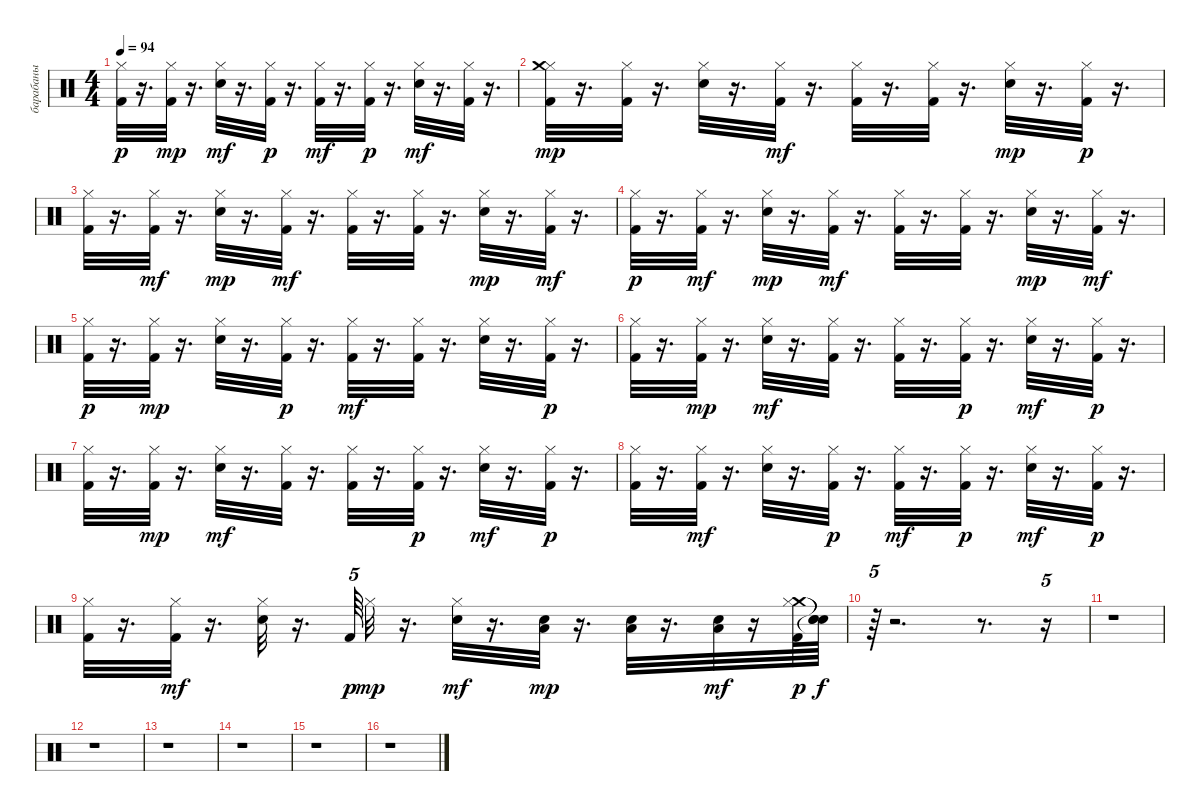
\track ("барабаны" "барабаны") {instrument percussion}
\staff {score}
\articulation defaults
\ts (4 4)
\tempo 94
\clef neutral
\ks c
("Hi-Hat (closed)" "Kick (hit) 2").32{dy p} r.16{d} ("Hi-Hat (closed)" "Kick (hit) 2").32{dy mp} r.16{d} ("Metronome (bell)" "Hi-Hat (closed)").32{dy mf} r.16{d} ("Hi-Hat (closed)" "Kick (hit) 2").32{dy p} r.16{d} ("Kick (hit) 2" "Hi-Hat (closed)").32{dy mf} r.16{d} ("Hi-Hat (closed)" "Kick (hit) 2").32{dy p} r.16{d} ("Hi-Hat (closed)" "Metronome (bell)").32{dy mf} r.16{d} ("Kick (hit) 2" "Hi-Hat (closed)").32 r.16{d} |
("Hi-Hat (closed)" "Kick (hit) 2" "Crash medium (hit)").32{dy mp} r.16{d} ("Hi-Hat (closed)" "Kick (hit) 2").32 r.16{d} ("Hi-Hat (closed)" "Metronome (bell)").32 r.16{d} ("Kick (hit) 2" "Hi-Hat (closed)").32{dy mf} r.16{d} ("Kick (hit) 2" "Hi-Hat (closed)").32 r.16{d} ("Kick (hit) 2" "Hi-Hat (closed)").32 r.16{d} ("Metronome (bell)" "Hi-Hat (closed)").32{dy mp} r.16{d} ("Hi-Hat (closed)" "Kick (hit) 2").32{dy p} r.16{d} |
("Kick (hit) 2" "Hi-Hat (closed)").32 r.16{d} ("Kick (hit) 2" "Hi-Hat (closed)").32{dy mf} r.16{d} ("Metronome (bell)" "Hi-Hat (closed)").32{dy mp} r.16{d} ("Kick (hit) 2" "Hi-Hat (closed)").32{dy mf} r.16{d} ("Hi-Hat (closed)" "Kick (hit) 2").32 r.16{d} ("Kick (hit) 2" "Hi-Hat (closed)").32 r.16{d} ("Hi-Hat (closed)" "Metronome (bell)").32{dy mp} r.16{d} ("Kick (hit) 2" "Hi-Hat (closed)").32{dy mf} r.16{d} |
("Kick (hit) 2" "Hi-Hat (closed)").32{dy p} r.16{d} ("Kick (hit) 2" "Hi-Hat (closed)").32{dy mf} r.16{d} ("Metronome (bell)" "Hi-Hat (closed)").32{dy mp} r.16{d} ("Kick (hit) 2" "Hi-Hat (closed)").32{dy mf} r.16{d} ("Kick (hit) 2" "Hi-Hat (closed)").32 r.16{d} ("Kick (hit) 2" "Hi-Hat (closed)").32 r.16{d} ("Hi-Hat (closed)" "Metronome (bell)").32{dy mp} r.16{d} ("Kick (hit) 2" "Hi-Hat (closed)").32{dy mf} r.16{d} |
("Kick (hit) 2" "Hi-Hat (closed)").32{dy p} r.16{d} ("Hi-Hat (closed)" "Kick (hit) 2").32{dy mp} r.16{d} ("Metronome (bell)" "Hi-Hat (closed)").32 r.16{d} ("Hi-Hat (closed)" "Kick (hit) 2").32{dy p} r.16{d} ("Hi-Hat (closed)" "Kick (hit) 2").32{dy mf} r.16{d} ("Kick (hit) 2" "Hi-Hat (closed)").32 r.16{d} ("Metronome (bell)" "Hi-Hat (closed)").32 r.16{d} ("Hi-Hat (closed)" "Kick (hit) 2").32{dy p} r.16{d} |
("Kick (hit) 2" "Hi-Hat (closed)").32 r.16{d} ("Hi-Hat (closed)" "Kick (hit) 2").32{dy mp} r.16{d} ("Hi-Hat (closed)" "Metronome (bell)").32{dy mf} r.16{d} ("Kick (hit) 2" "Hi-Hat (closed)").32 r.16{d} ("Hi-Hat (closed)" "Kick (hit) 2").32 r.16{d} ("Hi-Hat (closed)" "Kick (hit) 2").32{dy p} r.16{d} ("Metronome (bell)" "Hi-Hat (closed)").32{dy mf} r.16{d} ("Hi-Hat (closed)" "Kick (hit) 2").32{dy p} r.16{d} |
("Kick (hit) 2" "Hi-Hat (closed)").32 r.16{d} ("Hi-Hat (closed)" "Kick (hit) 2").32{dy mp} r.16{d} ("Hi-Hat (closed)" "Metronome (bell)").32{dy mf} r.16{d} ("Kick (hit) 2" "Hi-Hat (closed)").32 r.16{d} ("Kick (hit) 2" "Hi-Hat (closed)").32 r.16{d} ("Hi-Hat (closed)" "Kick (hit) 2").32{dy p} r.16{d} ("Metronome (bell)" "Hi-Hat (closed)").32{dy mf} r.16{d} ("Hi-Hat (closed)" "Kick (hit) 2").32{dy p} r.16{d} |
("Hi-Hat (closed)" "Kick (hit) 2").32 r.16{d} ("Kick (hit) 2" "Hi-Hat (closed)").32{dy mf} r.16{d} ("Hi-Hat (closed)" "Metronome (bell)").32 r.16{d} ("Hi-Hat (closed)" "Kick (hit) 2").32{dy p} r.16{d} ("Kick (hit) 2" "Hi-Hat (closed)").32{dy mf} r.16{d} ("Hi-Hat (closed)" "Kick (hit) 2").32{dy p} r.16{d} ("Metronome (bell)" "Hi-Hat (closed)").32{dy mf} r.16{d} ("Hi-Hat (closed)" "Kick (hit) 2").32{dy p} r.16{d} |
("Hi-Hat (closed)" "Kick (hit) 2").32 r.16{d} ("Kick (hit) 2" "Hi-Hat (closed)").32{dy mf} r.16{d} ("Hi-Hat (closed)" "Metronome (bell)").32 r.16{d} "Kick (hit) 2".64{tu (5 4) dy p} "Hi-Hat (closed)".32{dy mp} r.16{d} ("Snare (hit) 2" "Hi-Hat (closed)").32{dy mf} r.16{d} ("Low Tom (hit)" "Snare (hit) 2").32{dy mp} r.16{d} ("Snare (hit) 2" "Low Tom (hit)").32 r.16{d} ("Snare (hit) 2" "Low Floor Tom (hit)").32{dy mf} r.16 ("Crash medium (hit)" "Hi-Hat (closed)" "Kick (hit) 2").64{dy p} ("Snare (hit)"{t} "Snare (hit)"{t} "Snare (hit)"{t}).64{dy f} |
r.64{tu (5 4)} r.2{d} r.8{d} r.16{tu (5 4)} |
r.1 |
r.1 |
r.1 |
r.1 |
r.1 |
r.1
